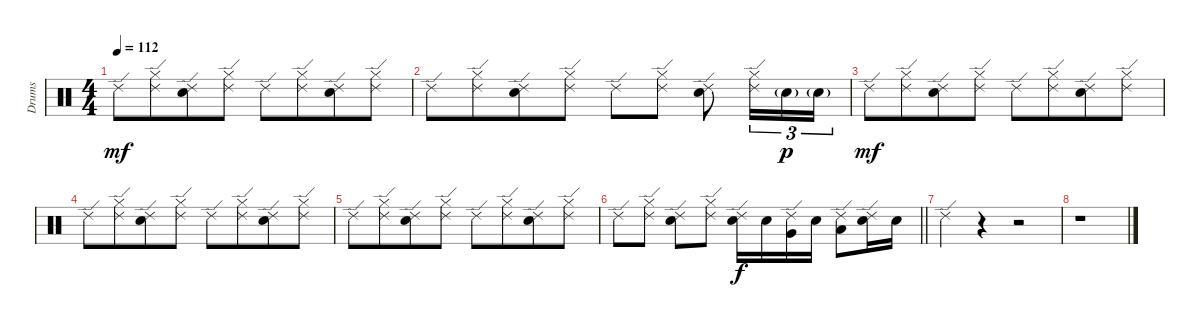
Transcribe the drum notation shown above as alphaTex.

\track ("Drums" "Drums") {instrument percussion}
\staff {score}
\articulation defaults
\ts (4 4)
\tempo 112
\clef neutral
\ks c "Ride (edge) 2".8{dy mf}
("Hi-Hat (closed)" "Ride (edge) 2").8{beam merge} ("Ride (edge) 2" "Electric Snare (hit)").8 ("Hi-Hat (closed)" "Ride (edge) 2").8 "Ride (edge) 2".8 ("Hi-Hat (closed)" "Ride (edge) 2").8{beam merge} ("Ride (edge) 2" "Electric Snare (hit)").8 ("Hi-Hat (closed)" "Ride (edge) 2").8 |
"Ride (edge) 2".8 ("Hi-Hat (closed)" "Ride (edge) 2").8{beam merge} ("Ride (edge) 2" "Electric Snare (hit)").8 ("Hi-Hat (closed)" "Ride (edge) 2").8 "Ride (edge) 2".8 ("Hi-Hat (closed)" "Ride (edge) 2").8{beam split} ("Ride (edge) 2" "Electric Snare (hit)").8 ("Hi-Hat (closed)" "Ride (edge) 2").16{tu (3 2)} "Electric Snare (hit)"{g}.16{tu (3 2) dy p} "Electric Snare (hit)"{g}.16{tu (3 2)} |
"Ride (edge) 2".8{dy mf} ("Hi-Hat (closed)" "Ride (edge) 2").8{beam merge} ("Ride (edge) 2" "Electric Snare (hit)").8 ("Hi-Hat (closed)" "Ride (edge) 2").8 "Ride (edge) 2".8 ("Hi-Hat (closed)" "Ride (edge) 2").8{beam merge} ("Ride (edge) 2" "Electric Snare (hit)").8 ("Hi-Hat (closed)" "Ride (edge) 2").8 |
"Ride (edge) 2".8 ("Hi-Hat (closed)" "Ride (edge) 2").8{beam merge} ("Ride (edge) 2" "Electric Snare (hit)").8 ("Hi-Hat (closed)" "Ride (edge) 2").8 "Ride (edge) 2".8 ("Hi-Hat (closed)" "Ride (edge) 2").8{beam merge} ("Ride (edge) 2" "Electric Snare (hit)").8 ("Hi-Hat (closed)" "Ride (edge) 2").8 |
"Ride (edge) 2".8 ("Hi-Hat (closed)" "Ride (edge) 2").8{beam merge} ("Ride (edge) 2" "Electric Snare (hit)").8 ("Hi-Hat (closed)" "Ride (edge) 2").8 "Ride (edge) 2".8 ("Hi-Hat (closed)" "Ride (edge) 2").8{beam merge} ("Ride (edge) 2" "Electric Snare (hit)").8 ("Hi-Hat (closed)" "Ride (edge) 2").8 |
\barLineRight lightlight "Ride (edge) 2".8
("Hi-Hat (closed)" "Ride (edge) 2").8{beam split} ("Ride (edge) 2" "Electric Snare (hit)").8 ("Hi-Hat (closed)" "Ride (edge) 2").8 ("Ride (edge) 2" "Electric Snare (hit)").16{dy f} "Electric Snare (hit)".16 ("Ride (edge) 2" "Very Low Tom (hit)").16 "Electric Snare (hit)".16 ("Ride (edge) 2" "Low Tom (hit)").8 ("Ride (edge) 2" "Electric Snare (hit)").16 "Electric Snare (hit)".16 |
"Ride (edge) 2".4 r.4 r.2 |
r.1
